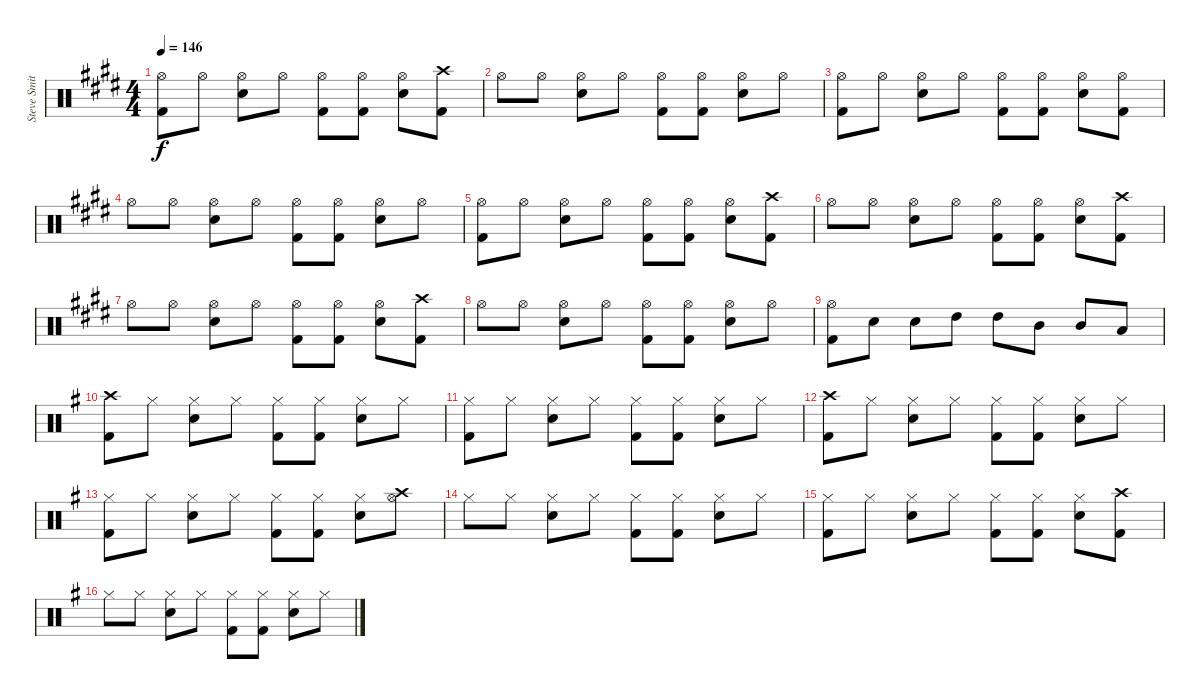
\track ("Steve Smith" "Steve Smit") {instrument percussion}
\staff {score}
\articulation defaults
\ts (4 4)
\tempo 146
\clef neutral
\ks e
("Hi-Hat (open)" "Kick (hit) 2").8{dy f} "Hi-Hat (open)".8 ("Hi-Hat (open)" "Snare (hit) 2").8 "Hi-Hat (open)".8 ("Hi-Hat (open)" "Kick (hit) 2").8 ("Hi-Hat (open)" "Kick (hit) 2").8 ("Hi-Hat (open)" "Snare (hit) 2").8 ("Crash high (hit)" "Kick (hit) 2").8 |
"Hi-Hat (open)".8 "Hi-Hat (open)".8 ("Hi-Hat (open)" "Snare (hit) 2").8 "Hi-Hat (open)".8 ("Hi-Hat (open)" "Kick (hit) 2").8 ("Hi-Hat (open)" "Kick (hit) 2").8 ("Hi-Hat (open)" "Snare (hit) 2").8 "Hi-Hat (open)".8 |
("Hi-Hat (open)" "Kick (hit) 2").8 "Hi-Hat (open)".8 ("Hi-Hat (open)" "Snare (hit) 2").8 "Hi-Hat (open)".8 ("Hi-Hat (open)" "Kick (hit) 2").8 ("Hi-Hat (open)" "Kick (hit) 2").8 ("Hi-Hat (open)" "Snare (hit) 2").8 ("Hi-Hat (open)" "Kick (hit) 2").8 |
"Hi-Hat (open)".8 "Hi-Hat (open)".8 ("Hi-Hat (open)" "Snare (hit) 2").8 "Hi-Hat (open)".8 ("Hi-Hat (open)" "Kick (hit) 2").8 ("Hi-Hat (open)" "Kick (hit) 2").8 ("Hi-Hat (open)" "Snare (hit) 2").8 "Hi-Hat (open)".8 |
("Hi-Hat (open)" "Kick (hit) 2").8 "Hi-Hat (open)".8 ("Hi-Hat (open)" "Snare (hit) 2").8 "Hi-Hat (open)".8 ("Hi-Hat (open)" "Kick (hit) 2").8 ("Hi-Hat (open)" "Kick (hit) 2").8 ("Hi-Hat (open)" "Snare (hit) 2").8 ("Crash high (hit)" "Kick (hit) 2").8 |
"Hi-Hat (open)".8 "Hi-Hat (open)".8 ("Hi-Hat (open)" "Snare (hit) 2").8 "Hi-Hat (open)".8 ("Hi-Hat (open)" "Kick (hit) 2").8 ("Hi-Hat (open)" "Kick (hit) 2").8 ("Hi-Hat (open)" "Snare (hit) 2").8 ("Crash high (hit)" "Kick (hit) 2").8 |
"Hi-Hat (open)".8 "Hi-Hat (open)".8 ("Hi-Hat (open)" "Snare (hit) 2").8 "Hi-Hat (open)".8 ("Hi-Hat (open)" "Kick (hit) 2").8 ("Hi-Hat (open)" "Kick (hit) 2").8 ("Hi-Hat (open)" "Snare (hit) 2").8 ("Crash high (hit)" "Kick (hit) 2").8 |
"Hi-Hat (open)".8 "Hi-Hat (open)".8 ("Hi-Hat (open)" "Snare (hit) 2").8 "Hi-Hat (open)".8 ("Hi-Hat (open)" "Kick (hit) 2").8 ("Hi-Hat (open)" "Kick (hit) 2").8 ("Hi-Hat (open)" "Snare (hit) 2").8 "Hi-Hat (open)".8 |
("Hi-Hat (open)" "Kick (hit) 2").8 "Snare (hit) 2".8 "Snare (hit) 2".8 "High Tom (hit)".8 "High Tom (hit)".8 "Mid Tom (hit)".8 "Mid Tom (hit)".8 "Low Tom (hit)".8 |
\ks g
("Crash high (hit)" "Kick (hit) 2").8 "Hi-Hat (closed)".8 ("Hi-Hat (closed)" "Snare (hit) 2").8 "Hi-Hat (closed)".8 ("Hi-Hat (closed)" "Kick (hit) 2").8 ("Hi-Hat (closed)" "Kick (hit) 2").8 ("Hi-Hat (closed)" "Snare (hit) 2").8 "Hi-Hat (closed)".8 |
("Hi-Hat (closed)" "Kick (hit) 2").8 "Hi-Hat (closed)".8 ("Hi-Hat (closed)" "Snare (hit) 2").8 "Hi-Hat (closed)".8 ("Hi-Hat (closed)" "Kick (hit) 2").8 ("Hi-Hat (closed)" "Kick (hit) 2").8 ("Hi-Hat (closed)" "Snare (hit) 2").8 "Hi-Hat (closed)".8 |
("Crash high (hit)" "Kick (hit) 2").8 "Hi-Hat (closed)".8 ("Hi-Hat (closed)" "Snare (hit) 2").8 "Hi-Hat (closed)".8 ("Hi-Hat (closed)" "Kick (hit) 2").8 ("Hi-Hat (closed)" "Kick (hit) 2").8 ("Hi-Hat (closed)" "Snare (hit) 2").8 "Hi-Hat (closed)".8 |
("Hi-Hat (closed)" "Kick (hit) 2").8 "Hi-Hat (closed)".8 ("Hi-Hat (closed)" "Snare (hit) 2").8 "Hi-Hat (closed)".8 ("Hi-Hat (closed)" "Kick (hit) 2").8 ("Hi-Hat (closed)" "Kick (hit) 2").8 ("Hi-Hat (closed)" "Snare (hit) 2").8 ("Crash high (hit)" "Hi-Hat (open)").8 |
"Hi-Hat (closed)".8 "Hi-Hat (closed)".8 ("Hi-Hat (closed)" "Snare (hit) 2").8 "Hi-Hat (closed)".8 ("Hi-Hat (closed)" "Kick (hit) 2").8 ("Hi-Hat (closed)" "Kick (hit) 2").8 ("Hi-Hat (closed)" "Snare (hit) 2").8 "Hi-Hat (closed)".8 |
("Hi-Hat (closed)" "Kick (hit) 2").8 "Hi-Hat (closed)".8 ("Hi-Hat (closed)" "Snare (hit) 2").8 "Hi-Hat (closed)".8 ("Hi-Hat (closed)" "Kick (hit) 2").8 ("Hi-Hat (closed)" "Kick (hit) 2").8 ("Hi-Hat (closed)" "Snare (hit) 2").8 ("Crash high (hit)" "Kick (hit) 2").8 |
"Hi-Hat (closed)".8 "Hi-Hat (closed)".8 ("Hi-Hat (closed)" "Snare (hit) 2").8 "Hi-Hat (closed)".8 ("Hi-Hat (closed)" "Kick (hit) 2").8 ("Hi-Hat (closed)" "Kick (hit) 2").8 ("Hi-Hat (closed)" "Snare (hit) 2").8 "Hi-Hat (closed)".8
